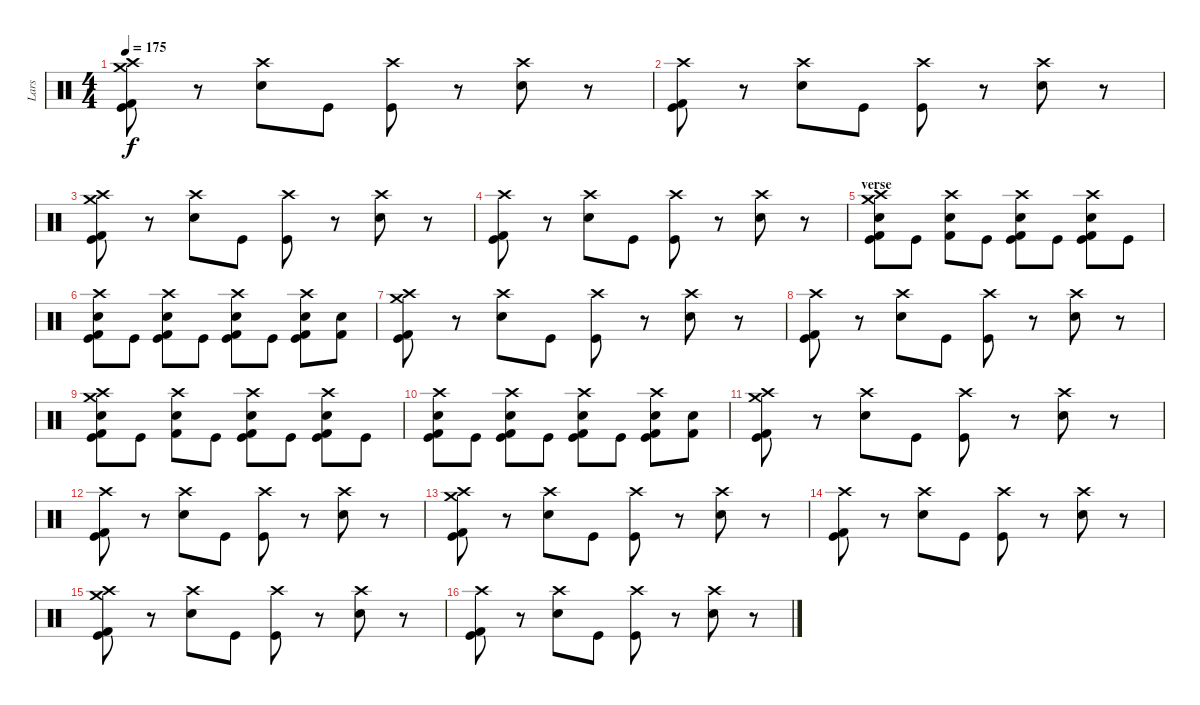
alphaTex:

\track ("Lars" "Lars") {instrument percussion}
\staff {score}
\articulation defaults
\ts (4 4)
\tempo 175
\clef neutral
\ks c
("Crash high (hit)" "Crash medium (hit)" "Kick (hit) 2" "Kick (hit)").8{dy f} r.8 ("Crash high (hit)" "Snare (hit) 2").8 "Kick (hit)".8 ("Crash high (hit)" "Kick (hit)").8 r.8 ("Crash high (hit)" "Snare (hit) 2").8 r.8 |
("Crash high (hit)" "Kick (hit) 2" "Kick (hit)").8 r.8 ("Crash high (hit)" "Snare (hit) 2").8 "Kick (hit)".8 ("Crash high (hit)" "Kick (hit)").8 r.8 ("Crash high (hit)" "Snare (hit) 2").8 r.8 |
("Crash high (hit)" "Crash medium (hit)" "Kick (hit) 2" "Kick (hit)").8 r.8 ("Crash high (hit)" "Snare (hit) 2").8 "Kick (hit)".8 ("Crash high (hit)" "Kick (hit)").8 r.8 ("Crash high (hit)" "Snare (hit) 2").8 r.8 |
("Crash high (hit)" "Kick (hit) 2" "Kick (hit)").8 r.8 ("Crash high (hit)" "Snare (hit) 2").8 "Kick (hit)".8 ("Crash high (hit)" "Kick (hit)").8 r.8 ("Crash high (hit)" "Snare (hit) 2").8 r.8 |
\section ("" "verse")
("Crash high (hit)" "Snare (hit) 2" "Crash medium (hit)" "Kick (hit) 2" "Kick (hit)").8 "Kick (hit)".8 ("Crash high (hit)" "Snare (hit) 2" "Kick (hit) 2").8 "Kick (hit)".8 ("Crash high (hit)" "Snare (hit) 2" "Kick (hit) 2" "Kick (hit)").8 "Kick (hit)".8 ("Crash high (hit)" "Snare (hit) 2" "Kick (hit) 2" "Kick (hit)").8 "Kick (hit)".8 |
("Crash high (hit)" "Snare (hit) 2" "Kick (hit) 2" "Kick (hit)").8 "Kick (hit)".8 ("Crash high (hit)" "Snare (hit) 2" "Kick (hit) 2" "Kick (hit)").8 "Kick (hit)".8 ("Crash high (hit)" "Snare (hit) 2" "Kick (hit) 2" "Kick (hit)").8 "Kick (hit)".8 ("Crash high (hit)" "Snare (hit) 2" "Kick (hit) 2" "Kick (hit)").8 ("Snare (hit) 2" "Kick (hit) 2").8 |
("Crash high (hit)" "Crash medium (hit)" "Kick (hit) 2" "Kick (hit)").8 r.8 ("Crash high (hit)" "Snare (hit) 2").8 "Kick (hit)".8 ("Crash high (hit)" "Kick (hit)").8 r.8 ("Crash high (hit)" "Snare (hit) 2").8 r.8 |
("Crash high (hit)" "Kick (hit) 2" "Kick (hit)").8 r.8 ("Crash high (hit)" "Snare (hit) 2").8 "Kick (hit)".8 ("Crash high (hit)" "Kick (hit)").8 r.8 ("Crash high (hit)" "Snare (hit) 2").8 r.8 |
("Crash high (hit)" "Snare (hit) 2" "Crash medium (hit)" "Kick (hit) 2" "Kick (hit)").8 "Kick (hit)".8 ("Crash high (hit)" "Snare (hit) 2" "Kick (hit) 2").8 "Kick (hit)".8 ("Crash high (hit)" "Snare (hit) 2" "Kick (hit) 2" "Kick (hit)").8 "Kick (hit)".8 ("Crash high (hit)" "Snare (hit) 2" "Kick (hit) 2" "Kick (hit)").8 "Kick (hit)".8 |
("Crash high (hit)" "Snare (hit) 2" "Kick (hit) 2" "Kick (hit)").8 "Kick (hit)".8 ("Crash high (hit)" "Snare (hit) 2" "Kick (hit) 2" "Kick (hit)").8 "Kick (hit)".8 ("Crash high (hit)" "Snare (hit) 2" "Kick (hit) 2" "Kick (hit)").8 "Kick (hit)".8 ("Crash high (hit)" "Snare (hit) 2" "Kick (hit) 2" "Kick (hit)").8 ("Snare (hit) 2" "Kick (hit) 2").8 |
("Crash high (hit)" "Crash medium (hit)" "Kick (hit) 2" "Kick (hit)").8 r.8 ("Crash high (hit)" "Snare (hit) 2").8 "Kick (hit)".8 ("Crash high (hit)" "Kick (hit)").8 r.8 ("Crash high (hit)" "Snare (hit) 2").8 r.8 |
("Crash high (hit)" "Kick (hit) 2" "Kick (hit)").8 r.8 ("Crash high (hit)" "Snare (hit) 2").8 "Kick (hit)".8 ("Crash high (hit)" "Kick (hit)").8 r.8 ("Crash high (hit)" "Snare (hit) 2").8 r.8 |
("Crash high (hit)" "Crash medium (hit)" "Kick (hit) 2" "Kick (hit)").8 r.8 ("Crash high (hit)" "Snare (hit) 2").8 "Kick (hit)".8 ("Crash high (hit)" "Kick (hit)").8 r.8 ("Crash high (hit)" "Snare (hit) 2").8 r.8 |
("Crash high (hit)" "Kick (hit) 2" "Kick (hit)").8 r.8 ("Crash high (hit)" "Snare (hit) 2").8 "Kick (hit)".8 ("Crash high (hit)" "Kick (hit)").8 r.8 ("Crash high (hit)" "Snare (hit) 2").8 r.8 |
("Crash high (hit)" "Crash medium (hit)" "Kick (hit) 2" "Kick (hit)").8 r.8 ("Crash high (hit)" "Snare (hit) 2").8 "Kick (hit)".8 ("Crash high (hit)" "Kick (hit)").8 r.8 ("Crash high (hit)" "Snare (hit) 2").8 r.8 |
("Crash high (hit)" "Kick (hit) 2" "Kick (hit)").8 r.8 ("Crash high (hit)" "Snare (hit) 2").8 "Kick (hit)".8 ("Crash high (hit)" "Kick (hit)").8 r.8 ("Crash high (hit)" "Snare (hit) 2").8 r.8
